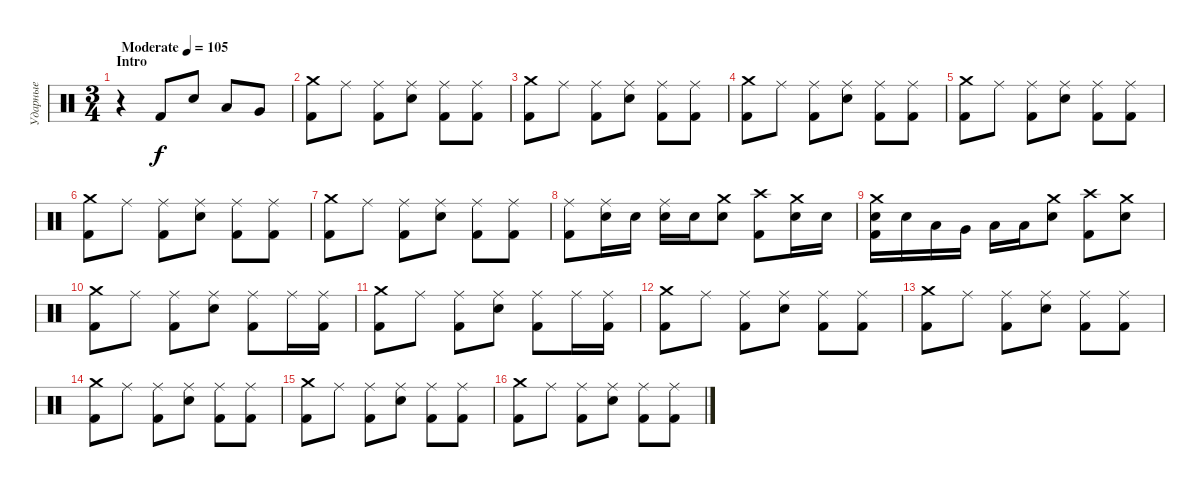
\track ("Ударные" "Ударные") {instrument percussion}
\staff {score}
\articulation defaults
\ts (3 4)
\section ("" "Intro")
\tempo (105 "Moderate")
\clef neutral
\ks c
r.4{dy f} "Kick (hit) 2".8 "Electric Snare (hit)".8 "Low Tom (hit)".8 "Very Low Tom (hit)".8 |
("Crash medium (hit)" "Kick (hit) 2").8 "Ride (middle)".8 ("Ride (middle)" "Kick (hit) 2").8 ("Ride (middle)" "Electric Snare (hit)").8 ("Ride (middle)" "Kick (hit) 2").8 ("Ride (middle)" "Kick (hit) 2").8 |
("Crash medium (hit)" "Kick (hit) 2").8 "Ride (middle)".8 ("Ride (middle)" "Kick (hit) 2").8 ("Ride (middle)" "Electric Snare (hit)").8 ("Ride (middle)" "Kick (hit) 2").8 ("Ride (middle)" "Kick (hit) 2").8 |
("Crash medium (hit)" "Kick (hit) 2").8 "Ride (middle)".8 ("Ride (middle)" "Kick (hit) 2").8 ("Ride (middle)" "Electric Snare (hit)").8 ("Ride (middle)" "Kick (hit) 2").8 ("Ride (middle)" "Kick (hit) 2").8 |
("Crash medium (hit)" "Kick (hit) 2").8 "Ride (middle)".8 ("Ride (middle)" "Kick (hit) 2").8 ("Ride (middle)" "Electric Snare (hit)").8 ("Ride (middle)" "Kick (hit) 2").8 ("Ride (middle)" "Kick (hit) 2").8 |
("Crash medium (hit)" "Kick (hit) 2").8 "Ride (middle)".8 ("Ride (middle)" "Kick (hit) 2").8 ("Ride (middle)" "Electric Snare (hit)").8 ("Ride (middle)" "Kick (hit) 2").8 ("Ride (middle)" "Kick (hit) 2").8 |
("Crash medium (hit)" "Kick (hit) 2").8 "Ride (middle)".8 ("Ride (middle)" "Kick (hit) 2").8 ("Ride (middle)" "Electric Snare (hit)").8 ("Ride (middle)" "Kick (hit) 2").8 ("Ride (middle)" "Kick (hit) 2").8 |
("Ride (middle)" "Kick (hit) 2").8 ("Ride (middle)" "Electric Snare (hit)").16 "Electric Snare (hit)".16 ("Ride (middle)" "Electric Snare (hit)").16 "Electric Snare (hit)".16 ("Crash medium (hit)" "Electric Snare (hit)").8 ("Crash high (hit)" "Kick (hit) 2").8 ("Crash medium (hit)" "Electric Snare (hit)").16 "Electric Snare (hit)".16 |
("Crash medium (hit)" "Electric Snare (hit)" "Kick (hit) 2").16 "Electric Snare (hit)".16 "Low Tom (hit)".16 "Very Low Tom (hit)".16 "Low Floor Tom (hit)".16 "Low Floor Tom (hit)".16 ("Crash medium (hit)" "Electric Snare (hit)").8 ("Crash high (hit)" "Kick (hit) 2").8 ("Crash medium (hit)" "Electric Snare (hit)").8 |
("Crash medium (hit)" "Kick (hit) 2").8 "Ride (middle)".8 ("Ride (middle)" "Kick (hit) 2").8 ("Ride (middle)" "Electric Snare (hit)").8 ("Ride (middle)" "Kick (hit) 2").8 "Ride (middle)".16 ("Ride (middle)" "Kick (hit) 2").16 |
("Crash medium (hit)" "Kick (hit) 2").8 "Ride (middle)".8 ("Ride (middle)" "Kick (hit) 2").8 ("Ride (middle)" "Electric Snare (hit)").8 ("Ride (middle)" "Kick (hit) 2").8 "Ride (middle)".16 ("Ride (middle)" "Kick (hit) 2").16 |
("Crash medium (hit)" "Kick (hit) 2").8 "Ride (middle)".8 ("Ride (middle)" "Kick (hit) 2").8 ("Ride (middle)" "Electric Snare (hit)").8 ("Ride (middle)" "Kick (hit) 2").8 ("Ride (middle)" "Kick (hit) 2").8 |
("Crash medium (hit)" "Kick (hit) 2").8 "Ride (middle)".8 ("Ride (middle)" "Kick (hit) 2").8 ("Ride (middle)" "Electric Snare (hit)").8 ("Ride (middle)" "Kick (hit) 2").8 ("Ride (middle)" "Kick (hit) 2").8 |
("Crash medium (hit)" "Kick (hit) 2").8 "Ride (middle)".8 ("Ride (middle)" "Kick (hit) 2").8 ("Ride (middle)" "Electric Snare (hit)").8 ("Ride (middle)" "Kick (hit) 2").8 ("Ride (middle)" "Kick (hit) 2").8 |
("Crash medium (hit)" "Kick (hit) 2").8 "Ride (middle)".8 ("Ride (middle)" "Kick (hit) 2").8 ("Ride (middle)" "Electric Snare (hit)").8 ("Ride (middle)" "Kick (hit) 2").8 ("Ride (middle)" "Kick (hit) 2").8 |
("Crash medium (hit)" "Kick (hit) 2").8 "Ride (middle)".8 ("Ride (middle)" "Kick (hit) 2").8 ("Ride (middle)" "Electric Snare (hit)").8 ("Ride (middle)" "Kick (hit) 2").8 ("Ride (middle)" "Kick (hit) 2").8
